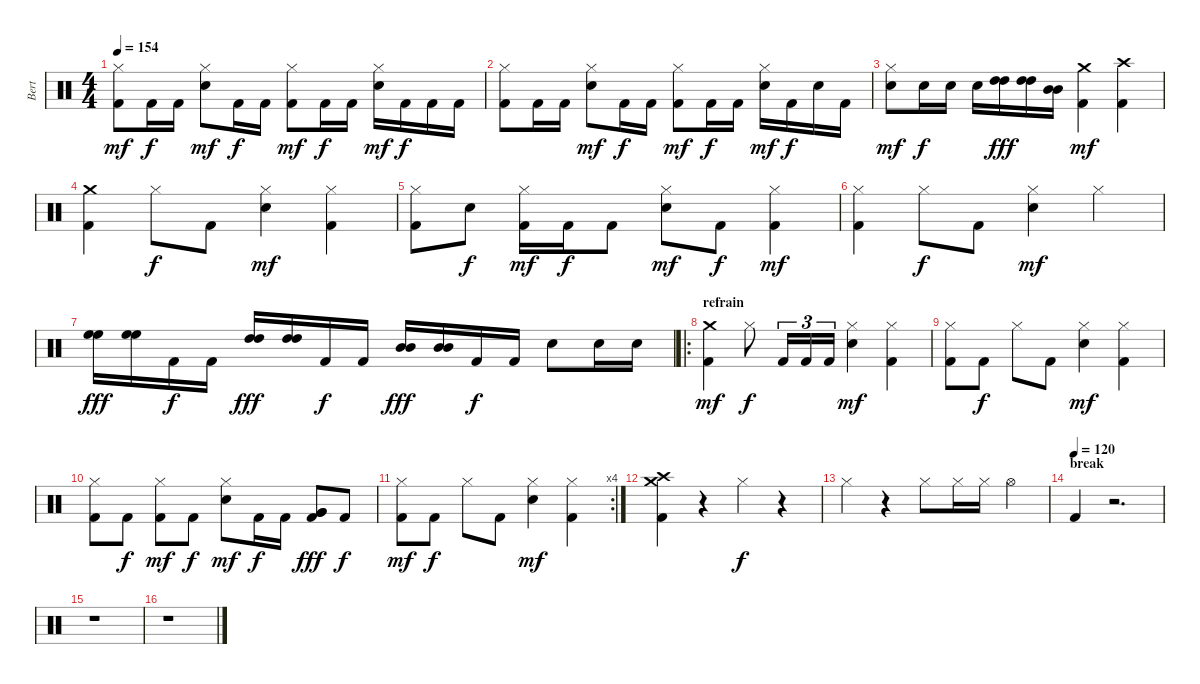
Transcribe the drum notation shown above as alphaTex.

\track ("Bert" "Bert") {instrument percussion}
\staff {score}
\articulation defaults
\ts (4 4)
\tempo 154
\clef neutral
\ks c
("Hi-Hat (closed)" "Kick (hit) 2").8{dy mf} "Kick (hit) 2".16{dy f} "Kick (hit) 2".16 ("Hi-Hat (closed)" "Snare (hit) 2").8{dy mf} "Kick (hit) 2".16{dy f} "Kick (hit) 2".16 ("Hi-Hat (closed)" "Kick (hit) 2").8{dy mf} "Kick (hit) 2".16{dy f} "Kick (hit) 2".16 ("Hi-Hat (closed)" "Snare (hit) 2").16{dy mf} "Kick (hit) 2".16{dy f} "Kick (hit) 2".16 "Kick (hit) 2".16 |
("Hi-Hat (closed)" "Kick (hit) 2").8 "Kick (hit) 2".16 "Kick (hit) 2".16 ("Hi-Hat (closed)" "Snare (hit) 2").8{dy mf} "Kick (hit) 2".16{dy f} "Kick (hit) 2".16 ("Hi-Hat (closed)" "Kick (hit) 2").8{dy mf} "Kick (hit) 2".16{dy f} "Kick (hit) 2".16 ("Hi-Hat (closed)" "Snare (hit) 2").16{dy mf} "Kick (hit) 2".16{dy f} "Snare (hit) 2".16 "Kick (hit) 2".16 |
("Hi-Hat (closed)" "Snare (hit) 2").8{dy mf} "Snare (hit) 2".16{dy f} "Snare (hit) 2".16 "Snare (hit) 2".16 ("High Tom (hit)" "High Tom (hit)").16{dy fff} ("High Tom (hit)" "High Tom (hit)").16 ("Mid Tom (hit)" "Mid Tom (hit)").16 ("Crash medium (hit)" "Kick (hit) 2").4{dy mf} ("Crash high (hit)" "Kick (hit) 2").4 |
("Crash medium (hit)" "Kick (hit) 2").4 "Hi-Hat (closed)".8{dy f} "Kick (hit) 2".8 ("Hi-Hat (closed)" "Snare (hit) 2").4{dy mf} ("Hi-Hat (closed)" "Kick (hit) 2").4 |
("Hi-Hat (closed)" "Kick (hit) 2").8 "Snare (hit) 2".8{dy f} ("Hi-Hat (closed)" "Kick (hit) 2").16{dy mf} "Kick (hit) 2".16{dy f} "Kick (hit) 2".8 ("Hi-Hat (closed)" "Snare (hit) 2").8{dy mf} "Kick (hit) 2".8{dy f} ("Hi-Hat (closed)" "Kick (hit) 2").4{dy mf} |
("Hi-Hat (closed)" "Kick (hit) 2").4 "Hi-Hat (closed)".8{dy f} "Kick (hit) 2".8 ("Hi-Hat (closed)" "Snare (hit) 2").4{dy mf} "Hi-Hat (closed)".4 |
("High Floor Tom (hit)" "High Floor Tom (hit)").16{dy fff} ("High Floor Tom (hit)" "High Floor Tom (hit)").16 "Kick (hit) 2".16{dy f} "Kick (hit) 2".16 ("High Tom (hit)" "High Tom (hit)").16{dy fff} ("High Tom (hit)" "High Tom (hit)").16 "Kick (hit) 2".16{dy f} "Kick (hit) 2".16 ("Mid Tom (hit)" "Mid Tom (hit)").16{dy fff} ("Mid Tom (hit)" "Mid Tom (hit)").16 "Kick (hit) 2".16{dy f} "Kick (hit) 2".16 "Snare (hit) 2".8 "Snare (hit) 2".16 "Snare (hit) 2".16 |
\ro
\section ("" "refrain")
("Crash medium (hit)" "Kick (hit) 2").4{dy mf} "Hi-Hat (closed)".8{dy f} "Kick (hit) 2".16{tu (3 2)} "Kick (hit) 2".16{tu (3 2)} "Kick (hit) 2".16{tu (3 2)} ("Hi-Hat (closed)" "Snare (hit) 2").4{dy mf} ("Hi-Hat (closed)" "Kick (hit) 2").4 |
("Hi-Hat (closed)" "Kick (hit) 2").8 "Kick (hit) 2".8{dy f} "Hi-Hat (closed)".8 "Kick (hit) 2".8 ("Hi-Hat (closed)" "Snare (hit) 2").4{dy mf} ("Hi-Hat (closed)" "Kick (hit) 2").4 |
("Hi-Hat (closed)" "Kick (hit) 2").8 "Kick (hit) 2".8{dy f} ("Hi-Hat (closed)" "Kick (hit) 2").8{dy mf} "Kick (hit) 2".8{dy f} ("Hi-Hat (closed)" "Snare (hit) 2").8{dy mf} "Kick (hit) 2".16{dy f} "Kick (hit) 2".16 ("Very Low Tom (hit)" "Very Low Tom (hit)" "Kick (hit) 2").8{dy fff} "Kick (hit) 2".8{dy f} |
\rc 4
("Hi-Hat (closed)" "Kick (hit) 2").8{dy mf} "Kick (hit) 2".8{dy f} "Hi-Hat (closed)".8 "Kick (hit) 2".8 ("Hi-Hat (closed)" "Snare (hit) 2").4{dy mf} ("Hi-Hat (closed)" "Kick (hit) 2").4 |
("Crash medium (hit)" "Crash high (hit)" "Kick (hit) 2").4 r.4 "Hi-Hat (closed)".4{dy f} r.4 |
"Hi-Hat (closed)".4 r.4 "Hi-Hat (closed)".8 "Hi-Hat (closed)".16 "Hi-Hat (closed)".16 "Hi-Hat (open)".4 |
\section ("" "break")
\tempo (120)
"Kick (hit) 2".4 r.2{d} |
r.1 |
r.1
